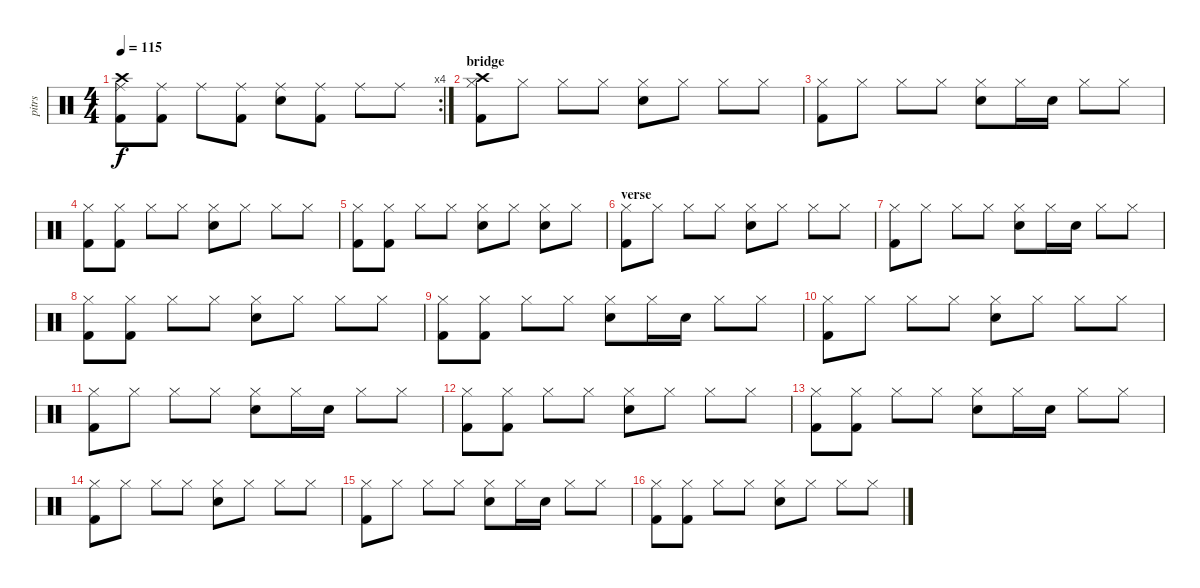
\track ("pitrs" "pitrs") {instrument percussion}
\staff {score}
\articulation defaults
\rc 4
\ts (4 4)
\tempo 115
\clef neutral
\ks c
("Crash high (hit)" "Kick (hit) 2" "Ride (middle)").8{dy f} ("Kick (hit) 2" "Ride (middle)").8 "Ride (middle)".8 ("Kick (hit) 2" "Ride (middle)").8 ("Snare (hit) 2" "Ride (middle)").8 ("Kick (hit) 2" "Ride (middle)").8 "Ride (middle)".8 "Ride (middle)".8 |
\section ("" "bridge")
("Crash high (hit)" "Kick (hit) 2" "Hi-Hat (closed)").8 "Hi-Hat (closed)".8 "Hi-Hat (closed)".8 "Hi-Hat (closed)".8 ("Snare (hit) 2" "Hi-Hat (closed)").8 "Hi-Hat (closed)".8 "Hi-Hat (closed)".8 "Hi-Hat (closed)".8 |
("Kick (hit) 2" "Hi-Hat (closed)").8 "Hi-Hat (closed)".8 "Hi-Hat (closed)".8 "Hi-Hat (closed)".8 ("Snare (hit) 2" "Hi-Hat (closed)").8 "Hi-Hat (closed)".16 "Snare (hit) 2".16 "Hi-Hat (closed)".8 "Hi-Hat (closed)".8 |
("Kick (hit) 2" "Hi-Hat (closed)").8 ("Kick (hit) 2" "Hi-Hat (closed)").8 "Hi-Hat (closed)".8 "Hi-Hat (closed)".8 ("Snare (hit) 2" "Hi-Hat (closed)").8 "Hi-Hat (closed)".8 "Hi-Hat (closed)".8 "Hi-Hat (closed)".8 |
("Kick (hit) 2" "Hi-Hat (closed)").8 ("Kick (hit) 2" "Hi-Hat (closed)").8 "Hi-Hat (closed)".8 "Hi-Hat (closed)".8 ("Snare (hit) 2" "Hi-Hat (closed)").8 "Hi-Hat (closed)".8 ("Snare (hit) 2" "Hi-Hat (closed)").8 "Hi-Hat (closed)".8 |
\section ("" "verse")
("Kick (hit) 2" "Hi-Hat (closed)").8 "Hi-Hat (closed)".8 "Hi-Hat (closed)".8 "Hi-Hat (closed)".8 ("Snare (hit) 2" "Hi-Hat (closed)").8 "Hi-Hat (closed)".8 "Hi-Hat (closed)".8 "Hi-Hat (closed)".8 |
("Kick (hit) 2" "Hi-Hat (closed)").8 "Hi-Hat (closed)".8 "Hi-Hat (closed)".8 "Hi-Hat (closed)".8 ("Snare (hit) 2" "Hi-Hat (closed)").8 "Hi-Hat (closed)".16 "Snare (hit) 2".16 "Hi-Hat (closed)".8 "Hi-Hat (closed)".8 |
("Kick (hit) 2" "Hi-Hat (closed)").8 ("Kick (hit) 2" "Hi-Hat (closed)").8 "Hi-Hat (closed)".8 "Hi-Hat (closed)".8 ("Snare (hit) 2" "Hi-Hat (closed)").8 "Hi-Hat (closed)".8 "Hi-Hat (closed)".8 "Hi-Hat (closed)".8 |
("Kick (hit) 2" "Hi-Hat (closed)").8 ("Kick (hit) 2" "Hi-Hat (closed)").8 "Hi-Hat (closed)".8 "Hi-Hat (closed)".8 ("Snare (hit) 2" "Hi-Hat (closed)").8 "Hi-Hat (closed)".16 "Snare (hit) 2".16 "Hi-Hat (closed)".8 "Hi-Hat (closed)".8 |
("Kick (hit) 2" "Hi-Hat (closed)").8 "Hi-Hat (closed)".8 "Hi-Hat (closed)".8 "Hi-Hat (closed)".8 ("Snare (hit) 2" "Hi-Hat (closed)").8 "Hi-Hat (closed)".8 "Hi-Hat (closed)".8 "Hi-Hat (closed)".8 |
("Kick (hit) 2" "Hi-Hat (closed)").8 "Hi-Hat (closed)".8 "Hi-Hat (closed)".8 "Hi-Hat (closed)".8 ("Snare (hit) 2" "Hi-Hat (closed)").8 "Hi-Hat (closed)".16 "Snare (hit) 2".16 "Hi-Hat (closed)".8 "Hi-Hat (closed)".8 |
("Kick (hit) 2" "Hi-Hat (closed)").8 ("Kick (hit) 2" "Hi-Hat (closed)").8 "Hi-Hat (closed)".8 "Hi-Hat (closed)".8 ("Snare (hit) 2" "Hi-Hat (closed)").8 "Hi-Hat (closed)".8 "Hi-Hat (closed)".8 "Hi-Hat (closed)".8 |
("Kick (hit) 2" "Hi-Hat (closed)").8 ("Kick (hit) 2" "Hi-Hat (closed)").8 "Hi-Hat (closed)".8 "Hi-Hat (closed)".8 ("Snare (hit) 2" "Hi-Hat (closed)").8 "Hi-Hat (closed)".16 "Snare (hit) 2".16 "Hi-Hat (closed)".8 "Hi-Hat (closed)".8 |
("Kick (hit) 2" "Hi-Hat (closed)").8 "Hi-Hat (closed)".8 "Hi-Hat (closed)".8 "Hi-Hat (closed)".8 ("Snare (hit) 2" "Hi-Hat (closed)").8 "Hi-Hat (closed)".8 "Hi-Hat (closed)".8 "Hi-Hat (closed)".8 |
("Kick (hit) 2" "Hi-Hat (closed)").8 "Hi-Hat (closed)".8 "Hi-Hat (closed)".8 "Hi-Hat (closed)".8 ("Snare (hit) 2" "Hi-Hat (closed)").8 "Hi-Hat (closed)".16 "Snare (hit) 2".16 "Hi-Hat (closed)".8 "Hi-Hat (closed)".8 |
("Kick (hit) 2" "Hi-Hat (closed)").8 ("Kick (hit) 2" "Hi-Hat (closed)").8 "Hi-Hat (closed)".8 "Hi-Hat (closed)".8 ("Snare (hit) 2" "Hi-Hat (closed)").8 "Hi-Hat (closed)".8 "Hi-Hat (closed)".8 "Hi-Hat (closed)".8
